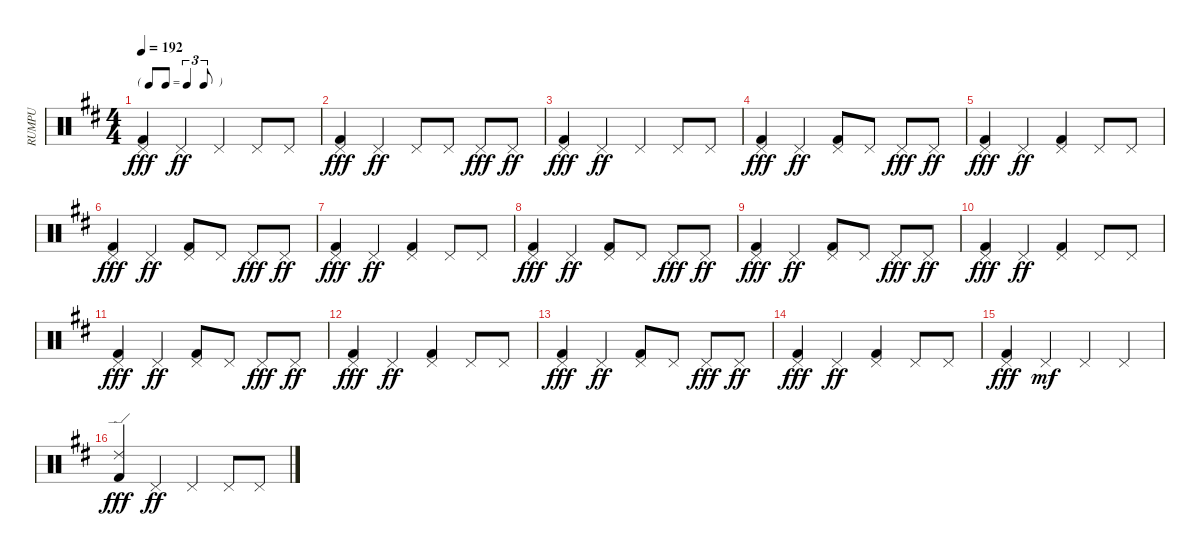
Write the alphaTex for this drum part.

\track ("RUMPU" "RUMPU") {instrument percussion}
\staff {score}
\articulation defaults
\ts (4 4)
\tf triplet8th
\tempo 192
\clef neutral
\ks d
("Pedal Hi-Hat (hit)" "Kick (hit) 2").4{dy fff} "Pedal Hi-Hat (hit)".4{dy ff} "Pedal Hi-Hat (hit)".4 "Pedal Hi-Hat (hit)".8 "Pedal Hi-Hat (hit)".8 |
("Pedal Hi-Hat (hit)" "Kick (hit) 2").4{dy fff} "Pedal Hi-Hat (hit)".4{dy ff} "Pedal Hi-Hat (hit)".8 "Pedal Hi-Hat (hit)".8 "Pedal Hi-Hat (hit)".8{dy fff} "Pedal Hi-Hat (hit)".8{dy ff} |
("Pedal Hi-Hat (hit)" "Kick (hit) 2").4{dy fff} "Pedal Hi-Hat (hit)".4{dy ff} "Pedal Hi-Hat (hit)".4 "Pedal Hi-Hat (hit)".8 "Pedal Hi-Hat (hit)".8 |
("Pedal Hi-Hat (hit)" "Kick (hit) 2").4{dy fff} "Pedal Hi-Hat (hit)".4{dy ff} ("Pedal Hi-Hat (hit)" "Kick (hit) 2").8 "Pedal Hi-Hat (hit)".8 "Pedal Hi-Hat (hit)".8{dy fff} "Pedal Hi-Hat (hit)".8{dy ff} |
("Pedal Hi-Hat (hit)" "Kick (hit) 2").4{dy fff} "Pedal Hi-Hat (hit)".4{dy ff} ("Pedal Hi-Hat (hit)" "Kick (hit) 2").4 "Pedal Hi-Hat (hit)".8 "Pedal Hi-Hat (hit)".8 |
("Pedal Hi-Hat (hit)" "Kick (hit) 2").4{dy fff} "Pedal Hi-Hat (hit)".4{dy ff} ("Pedal Hi-Hat (hit)" "Kick (hit) 2").8 "Pedal Hi-Hat (hit)".8 "Pedal Hi-Hat (hit)".8{dy fff} "Pedal Hi-Hat (hit)".8{dy ff} |
("Pedal Hi-Hat (hit)" "Kick (hit) 2").4{dy fff} "Pedal Hi-Hat (hit)".4{dy ff} ("Pedal Hi-Hat (hit)" "Kick (hit) 2").4 "Pedal Hi-Hat (hit)".8 "Pedal Hi-Hat (hit)".8 |
("Pedal Hi-Hat (hit)" "Kick (hit) 2").4{dy fff} "Pedal Hi-Hat (hit)".4{dy ff} ("Pedal Hi-Hat (hit)" "Kick (hit) 2").8 "Pedal Hi-Hat (hit)".8 "Pedal Hi-Hat (hit)".8{dy fff} "Pedal Hi-Hat (hit)".8{dy ff} |
("Pedal Hi-Hat (hit)" "Kick (hit) 2").4{dy fff} "Pedal Hi-Hat (hit)".4{dy ff} ("Pedal Hi-Hat (hit)" "Kick (hit) 2").8 "Pedal Hi-Hat (hit)".8 "Pedal Hi-Hat (hit)".8{dy fff} "Pedal Hi-Hat (hit)".8{dy ff} |
("Pedal Hi-Hat (hit)" "Kick (hit) 2").4{dy fff} "Pedal Hi-Hat (hit)".4{dy ff} ("Pedal Hi-Hat (hit)" "Kick (hit) 2").4 "Pedal Hi-Hat (hit)".8 "Pedal Hi-Hat (hit)".8 |
("Pedal Hi-Hat (hit)" "Kick (hit) 2").4{dy fff} "Pedal Hi-Hat (hit)".4{dy ff} ("Pedal Hi-Hat (hit)" "Kick (hit) 2").8 "Pedal Hi-Hat (hit)".8 "Pedal Hi-Hat (hit)".8{dy fff} "Pedal Hi-Hat (hit)".8{dy ff} |
("Pedal Hi-Hat (hit)" "Kick (hit) 2").4{dy fff} "Pedal Hi-Hat (hit)".4{dy ff} ("Pedal Hi-Hat (hit)" "Kick (hit) 2").4 "Pedal Hi-Hat (hit)".8 "Pedal Hi-Hat (hit)".8 |
("Pedal Hi-Hat (hit)" "Kick (hit) 2").4{dy fff} "Pedal Hi-Hat (hit)".4{dy ff} ("Pedal Hi-Hat (hit)" "Kick (hit) 2").8 "Pedal Hi-Hat (hit)".8 "Pedal Hi-Hat (hit)".8{dy fff} "Pedal Hi-Hat (hit)".8{dy ff} |
("Pedal Hi-Hat (hit)" "Kick (hit) 2").4{dy fff} "Pedal Hi-Hat (hit)".4{dy ff} ("Pedal Hi-Hat (hit)" "Kick (hit) 2").4 "Pedal Hi-Hat (hit)".8 "Pedal Hi-Hat (hit)".8 |
("Pedal Hi-Hat (hit)" "Kick (hit) 2").4{dy fff} "Pedal Hi-Hat (hit)".4{dy mf} "Pedal Hi-Hat (hit)".4 "Pedal Hi-Hat (hit)".4 |
("Ride (edge) 2" "Kick (hit) 2").4{dy fff} "Pedal Hi-Hat (hit)".4{dy ff} "Pedal Hi-Hat (hit)".4 "Pedal Hi-Hat (hit)".8 "Pedal Hi-Hat (hit)".8
